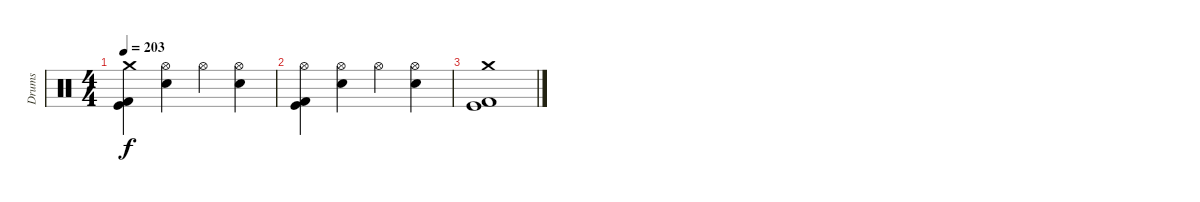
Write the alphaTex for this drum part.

\track ("Drums" "Drums") {instrument percussion}
\staff {score}
\articulation defaults
\ts (4 4)
\tempo 203
\clef neutral
\ks c
("Crash medium (hit)" "Kick (hit)" "Kick (hit) 2").4{dy f} ("Hi-Hat (open)" "Electric Snare (hit)").4 "Hi-Hat (open)".4 ("Hi-Hat (open)" "Electric Snare (hit)").4 |
("Hi-Hat (open)" "Kick (hit)" "Kick (hit) 2").4 ("Hi-Hat (open)" "Electric Snare (hit)").4 "Hi-Hat (open)".4 ("Hi-Hat (open)" "Electric Snare (hit)").4 |
("Crash medium (hit)" "Kick (hit)" "Kick (hit) 2").1
